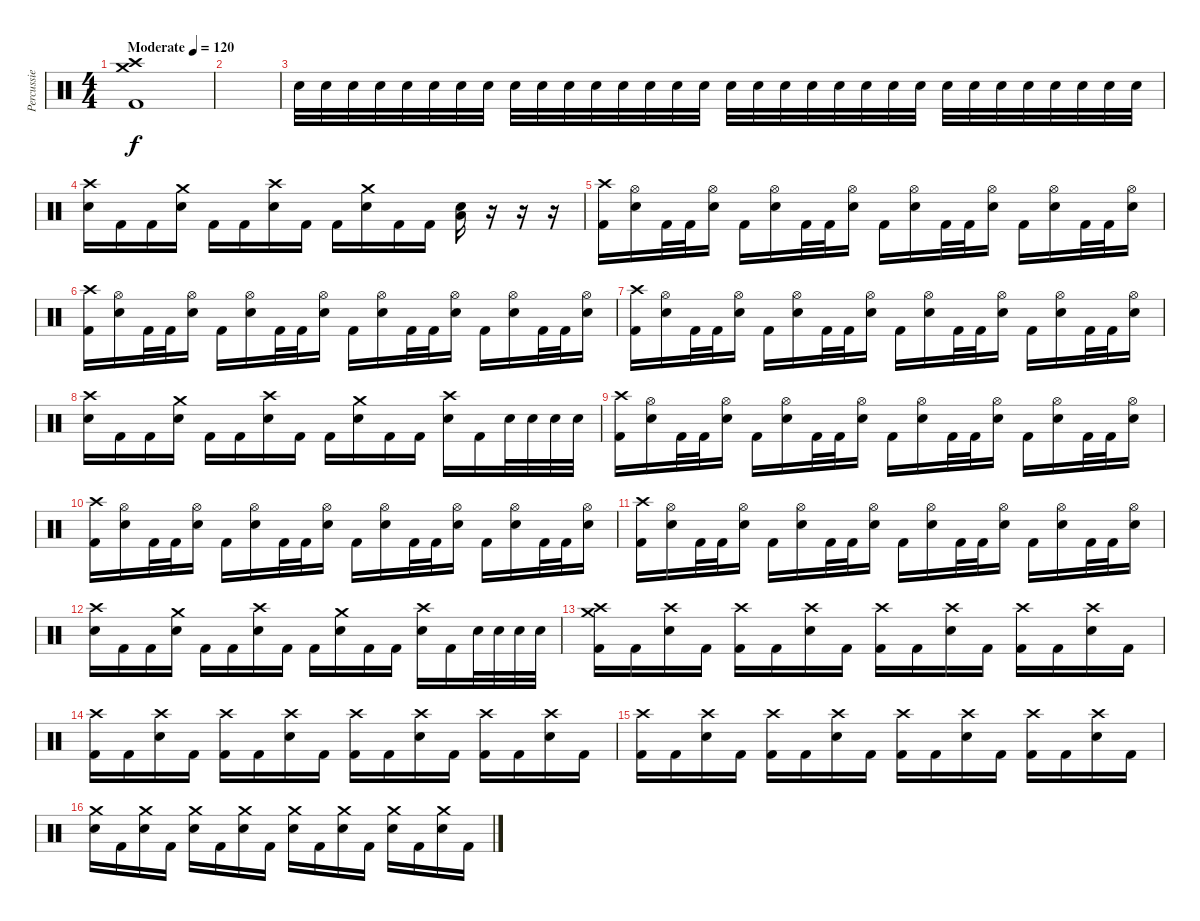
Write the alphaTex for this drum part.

\track ("Percussie" "Percussie") {instrument percussion}
\staff {score}
\articulation defaults
\ts (4 4)
\tempo (120 "Moderate")
\clef neutral
\ks c
("Crash medium (hit)" "Crash high (hit)" "Kick (hit) 2").1{dy f} |
|
"Electric Snare (hit)".32{volume 5} "Electric Snare (hit)".32 "Electric Snare (hit)".32 "Electric Snare (hit)".32 "Electric Snare (hit)".32 "Electric Snare (hit)".32 "Electric Snare (hit)".32 "Electric Snare (hit)".32 "Electric Snare (hit)".32{volume 8} "Electric Snare (hit)".32 "Electric Snare (hit)".32 "Electric Snare (hit)".32 "Electric Snare (hit)".32 "Electric Snare (hit)".32 "Electric Snare (hit)".32 "Electric Snare (hit)".32 "Electric Snare (hit)".32{volume 10} "Electric Snare (hit)".32 "Electric Snare (hit)".32 "Electric Snare (hit)".32 "Electric Snare (hit)".32 "Electric Snare (hit)".32 "Electric Snare (hit)".32 "Electric Snare (hit)".32 "Electric Snare (hit)".32{volume 11} "Electric Snare (hit)".32 "Electric Snare (hit)".32 "Electric Snare (hit)".32 "Electric Snare (hit)".32 "Electric Snare (hit)".32 "Electric Snare (hit)".32 "Electric Snare (hit)".32 |
("Crash high (hit)" "Electric Snare (hit)").16{volume 13} "Kick (hit) 2".16 "Kick (hit) 2".16 ("Crash medium (hit)" "Electric Snare (hit)").16 "Kick (hit) 2".16 "Kick (hit) 2".16 ("Crash high (hit)" "Electric Snare (hit)").16 "Kick (hit) 2".16 "Kick (hit) 2".16 ("Crash medium (hit)" "Electric Snare (hit)").16 "Kick (hit) 2".16 "Kick (hit) 2".16 ("Low Floor Tom (hit)" "Electric Snare (hit)").16 r.16 r.16 r.16 |
("Crash high (hit)" "Kick (hit) 2").16 ("Hi-Hat (open)" "Electric Snare (hit)").16 "Kick (hit) 2".32 "Kick (hit) 2".32 ("Hi-Hat (open)" "Electric Snare (hit)").16 "Kick (hit) 2".16 ("Hi-Hat (open)" "Electric Snare (hit)").16 "Kick (hit) 2".32 "Kick (hit) 2".32 ("Hi-Hat (open)" "Electric Snare (hit)").16 "Kick (hit) 2".16 ("Hi-Hat (open)" "Electric Snare (hit)").16 "Kick (hit) 2".32 "Kick (hit) 2".32 ("Hi-Hat (open)" "Electric Snare (hit)").16 "Kick (hit) 2".16 ("Hi-Hat (open)" "Electric Snare (hit)").16 "Kick (hit) 2".32 "Kick (hit) 2".32 ("Hi-Hat (open)" "Electric Snare (hit)").16 |
("Crash high (hit)" "Kick (hit) 2").16 ("Hi-Hat (open)" "Electric Snare (hit)").16 "Kick (hit) 2".32 "Kick (hit) 2".32 ("Hi-Hat (open)" "Electric Snare (hit)").16 "Kick (hit) 2".16 ("Hi-Hat (open)" "Electric Snare (hit)").16 "Kick (hit) 2".32 "Kick (hit) 2".32 ("Hi-Hat (open)" "Electric Snare (hit)").16 "Kick (hit) 2".16 ("Hi-Hat (open)" "Electric Snare (hit)").16 "Kick (hit) 2".32 "Kick (hit) 2".32 ("Hi-Hat (open)" "Electric Snare (hit)").16 "Kick (hit) 2".16 ("Hi-Hat (open)" "Electric Snare (hit)").16 "Kick (hit) 2".32 "Kick (hit) 2".32 ("Hi-Hat (open)" "Electric Snare (hit)").16 |
("Crash high (hit)" "Kick (hit) 2").16 ("Hi-Hat (open)" "Electric Snare (hit)").16 "Kick (hit) 2".32 "Kick (hit) 2".32 ("Hi-Hat (open)" "Electric Snare (hit)").16 "Kick (hit) 2".16 ("Hi-Hat (open)" "Electric Snare (hit)").16 "Kick (hit) 2".32 "Kick (hit) 2".32 ("Hi-Hat (open)" "Electric Snare (hit)").16 "Kick (hit) 2".16 ("Hi-Hat (open)" "Electric Snare (hit)").16 "Kick (hit) 2".32 "Kick (hit) 2".32 ("Hi-Hat (open)" "Electric Snare (hit)").16 "Kick (hit) 2".16 ("Hi-Hat (open)" "Electric Snare (hit)").16 "Kick (hit) 2".32 "Kick (hit) 2".32 ("Hi-Hat (open)" "Electric Snare (hit)").16 |
("Crash high (hit)" "Electric Snare (hit)").16{volume 13} "Kick (hit) 2".16 "Kick (hit) 2".16 ("Crash medium (hit)" "Electric Snare (hit)").16 "Kick (hit) 2".16 "Kick (hit) 2".16 ("Crash high (hit)" "Electric Snare (hit)").16 "Kick (hit) 2".16 "Kick (hit) 2".16 ("Crash medium (hit)" "Electric Snare (hit)").16 "Kick (hit) 2".16 "Kick (hit) 2".16 ("Crash high (hit)" "Electric Snare (hit)").16 "Kick (hit) 2".16 "Electric Snare (hit)".32 "Electric Snare (hit)".32 "Electric Snare (hit)".32 "Electric Snare (hit)".32 |
("Crash high (hit)" "Kick (hit) 2").16 ("Hi-Hat (open)" "Electric Snare (hit)").16 "Kick (hit) 2".32 "Kick (hit) 2".32 ("Hi-Hat (open)" "Electric Snare (hit)").16 "Kick (hit) 2".16 ("Hi-Hat (open)" "Electric Snare (hit)").16 "Kick (hit) 2".32 "Kick (hit) 2".32 ("Hi-Hat (open)" "Electric Snare (hit)").16 "Kick (hit) 2".16 ("Hi-Hat (open)" "Electric Snare (hit)").16 "Kick (hit) 2".32 "Kick (hit) 2".32 ("Hi-Hat (open)" "Electric Snare (hit)").16 "Kick (hit) 2".16 ("Hi-Hat (open)" "Electric Snare (hit)").16 "Kick (hit) 2".32 "Kick (hit) 2".32 ("Hi-Hat (open)" "Electric Snare (hit)").16 |
("Crash high (hit)" "Kick (hit) 2").16 ("Hi-Hat (open)" "Electric Snare (hit)").16 "Kick (hit) 2".32 "Kick (hit) 2".32 ("Hi-Hat (open)" "Electric Snare (hit)").16 "Kick (hit) 2".16 ("Hi-Hat (open)" "Electric Snare (hit)").16 "Kick (hit) 2".32 "Kick (hit) 2".32 ("Hi-Hat (open)" "Electric Snare (hit)").16 "Kick (hit) 2".16 ("Hi-Hat (open)" "Electric Snare (hit)").16 "Kick (hit) 2".32 "Kick (hit) 2".32 ("Hi-Hat (open)" "Electric Snare (hit)").16 "Kick (hit) 2".16 ("Hi-Hat (open)" "Electric Snare (hit)").16 "Kick (hit) 2".32 "Kick (hit) 2".32 ("Hi-Hat (open)" "Electric Snare (hit)").16 |
("Crash high (hit)" "Kick (hit) 2").16 ("Hi-Hat (open)" "Electric Snare (hit)").16 "Kick (hit) 2".32 "Kick (hit) 2".32 ("Hi-Hat (open)" "Electric Snare (hit)").16 "Kick (hit) 2".16 ("Hi-Hat (open)" "Electric Snare (hit)").16 "Kick (hit) 2".32 "Kick (hit) 2".32 ("Hi-Hat (open)" "Electric Snare (hit)").16 "Kick (hit) 2".16 ("Hi-Hat (open)" "Electric Snare (hit)").16 "Kick (hit) 2".32 "Kick (hit) 2".32 ("Hi-Hat (open)" "Electric Snare (hit)").16 "Kick (hit) 2".16 ("Hi-Hat (open)" "Electric Snare (hit)").16 "Kick (hit) 2".32 "Kick (hit) 2".32 ("Hi-Hat (open)" "Electric Snare (hit)").16 |
("Crash high (hit)" "Electric Snare (hit)").16{volume 13} "Kick (hit) 2".16 "Kick (hit) 2".16 ("Crash medium (hit)" "Electric Snare (hit)").16 "Kick (hit) 2".16 "Kick (hit) 2".16 ("Crash high (hit)" "Electric Snare (hit)").16 "Kick (hit) 2".16 "Kick (hit) 2".16 ("Crash medium (hit)" "Electric Snare (hit)").16 "Kick (hit) 2".16 "Kick (hit) 2".16 ("Crash high (hit)" "Electric Snare (hit)").16 "Kick (hit) 2".16 "Electric Snare (hit)".32 "Electric Snare (hit)".32 "Electric Snare (hit)".32 "Electric Snare (hit)".32 |
("Crash medium (hit)" "Crash high (hit)" "Kick (hit) 2").16 "Kick (hit) 2".16 ("Crash high (hit)" "Electric Snare (hit)").16 "Kick (hit) 2".16 ("Crash high (hit)" "Kick (hit) 2").16 "Kick (hit) 2".16 ("Crash high (hit)" "Electric Snare (hit)").16 "Kick (hit) 2".16 ("Crash high (hit)" "Kick (hit) 2").16 "Kick (hit) 2".16 ("Crash high (hit)" "Electric Snare (hit)").16 "Kick (hit) 2".16 ("Crash high (hit)" "Kick (hit) 2").16 "Kick (hit) 2".16 ("Crash high (hit)" "Electric Snare (hit)").16 "Kick (hit) 2".16 |
("Crash high (hit)" "Kick (hit) 2").16 "Kick (hit) 2".16 ("Crash high (hit)" "Electric Snare (hit)").16 "Kick (hit) 2".16 ("Crash high (hit)" "Kick (hit) 2").16 "Kick (hit) 2".16 ("Crash high (hit)" "Electric Snare (hit)").16 "Kick (hit) 2".16 ("Crash high (hit)" "Kick (hit) 2").16 "Kick (hit) 2".16 ("Crash high (hit)" "Electric Snare (hit)").16 "Kick (hit) 2".16 ("Crash high (hit)" "Kick (hit) 2").16 "Kick (hit) 2".16 ("Crash high (hit)" "Electric Snare (hit)").16 "Kick (hit) 2".16 |
("Crash high (hit)" "Kick (hit) 2").16 "Kick (hit) 2".16 ("Crash high (hit)" "Electric Snare (hit)").16 "Kick (hit) 2".16 ("Crash high (hit)" "Kick (hit) 2").16 "Kick (hit) 2".16 ("Crash high (hit)" "Electric Snare (hit)").16 "Kick (hit) 2".16 ("Crash high (hit)" "Kick (hit) 2").16 "Kick (hit) 2".16 ("Crash high (hit)" "Electric Snare (hit)").16 "Kick (hit) 2".16 ("Crash high (hit)" "Kick (hit) 2").16 "Kick (hit) 2".16 ("Crash high (hit)" "Electric Snare (hit)").16 "Kick (hit) 2".16 |
("Crash medium (hit)" "Electric Snare (hit)").16 "Kick (hit) 2".16 ("Crash medium (hit)" "Electric Snare (hit)").16 "Kick (hit) 2".16 ("Crash medium (hit)" "Electric Snare (hit)").16 "Kick (hit) 2".16 ("Crash medium (hit)" "Electric Snare (hit)").16 "Kick (hit) 2".16 ("Crash medium (hit)" "Electric Snare (hit)").16 "Kick (hit) 2".16 ("Crash medium (hit)" "Electric Snare (hit)").16 "Kick (hit) 2".16 ("Crash medium (hit)" "Electric Snare (hit)").16 "Kick (hit) 2".16 ("Crash medium (hit)" "Electric Snare (hit)").16 "Kick (hit) 2".16
